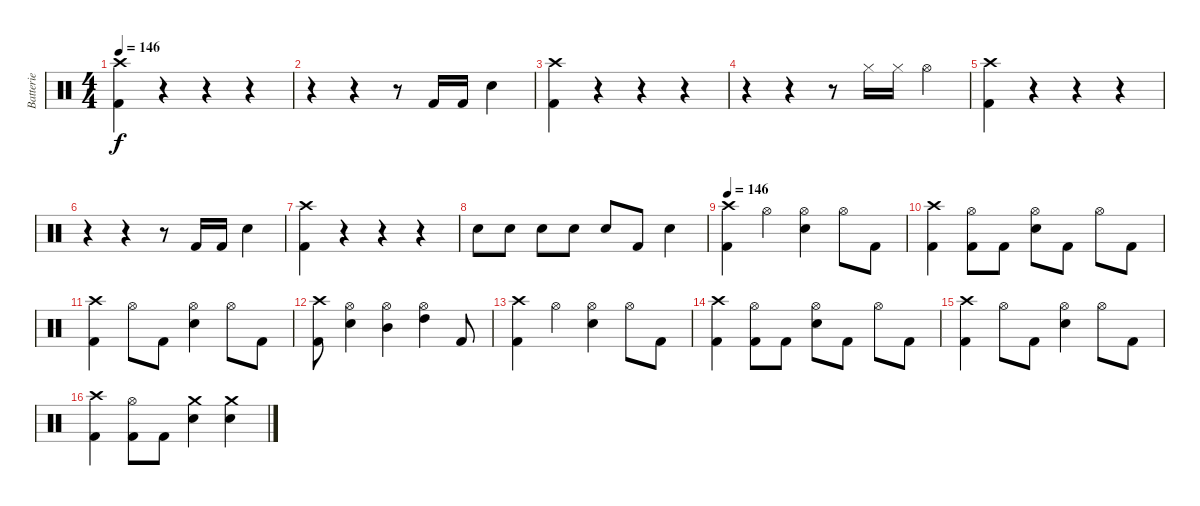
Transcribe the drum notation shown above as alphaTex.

\track ("Batterie" "Batterie") {instrument percussion}
\staff {score}
\articulation defaults
\ts (4 4)
\tempo 146
\tempo 136
\tempo 146
\clef neutral
\ks c
("Crash high (hit)" "Kick (hit) 2").4{dy f} r.4 r.4 r.4 |
r.4 r.4 r.8 "Kick (hit) 2".16 "Kick (hit) 2".16 "Electric Snare (hit)".4 |
("Crash high (hit)" "Kick (hit) 2").4 r.4 r.4 r.4 |
r.4 r.4 r.8 "Hi-Hat (closed)".16 "Hi-Hat (closed)".16 "Hi-Hat (open)".4 |
("Crash high (hit)" "Kick (hit) 2").4 r.4 r.4 r.4 |
r.4 r.4 r.8 "Kick (hit) 2".16 "Kick (hit) 2".16 "Electric Snare (hit)".4 |
("Crash high (hit)" "Kick (hit) 2").4 r.4 r.4 r.4 |
"Electric Snare (hit)".8 "Electric Snare (hit)".8 "Electric Snare (hit)".8 "Electric Snare (hit)".8 "Electric Snare (hit)".8 "Kick (hit) 2".8 "Electric Snare (hit)".4 |
\tempo 146
("Crash high (hit)" "Kick (hit) 2").4 "Hi-Hat (open)".4 ("Hi-Hat (open)" "Electric Snare (hit)").4 "Hi-Hat (open)".8 "Kick (hit) 2".8 |
("Crash high (hit)" "Kick (hit) 2").4 ("Hi-Hat (open)" "Kick (hit) 2").8 "Kick (hit) 2".8 ("Hi-Hat (open)" "Electric Snare (hit)").8 "Kick (hit) 2".8 "Hi-Hat (open)".8 "Kick (hit) 2".8 |
("Crash high (hit)" "Kick (hit) 2").4 "Hi-Hat (open)".8 "Kick (hit) 2".8 ("Hi-Hat (open)" "Electric Snare (hit)").4 "Hi-Hat (open)".8 "Kick (hit) 2".8 |
("Crash high (hit)" "Kick (hit) 2").8 ("Hi-Hat (open)" "Electric Snare (hit)").4 ("Hi-Hat (open)" "Mid Tom (hit)").4 ("Hi-Hat (open)" "High Tom (hit)").4 "Kick (hit) 2".8 |
("Crash high (hit)" "Kick (hit) 2").4 "Hi-Hat (open)".4 ("Hi-Hat (open)" "Electric Snare (hit)").4 "Hi-Hat (open)".8 "Kick (hit) 2".8 |
("Crash high (hit)" "Kick (hit) 2").4 ("Hi-Hat (open)" "Kick (hit) 2").8 "Kick (hit) 2".8 ("Hi-Hat (open)" "Electric Snare (hit)").8 "Kick (hit) 2".8 "Hi-Hat (open)".8 "Kick (hit) 2".8 |
("Crash high (hit)" "Kick (hit) 2").4 "Hi-Hat (open)".8 "Kick (hit) 2".8 ("Hi-Hat (open)" "Electric Snare (hit)").4 "Hi-Hat (open)".8 "Kick (hit) 2".8 |
("Crash high (hit)" "Kick (hit) 2").4 ("Hi-Hat (open)" "Kick (hit) 2").8 "Kick (hit) 2".8 ("Crash medium (hit)" "Electric Snare (hit)").4 ("Crash medium (hit)" "Electric Snare (hit)").4
